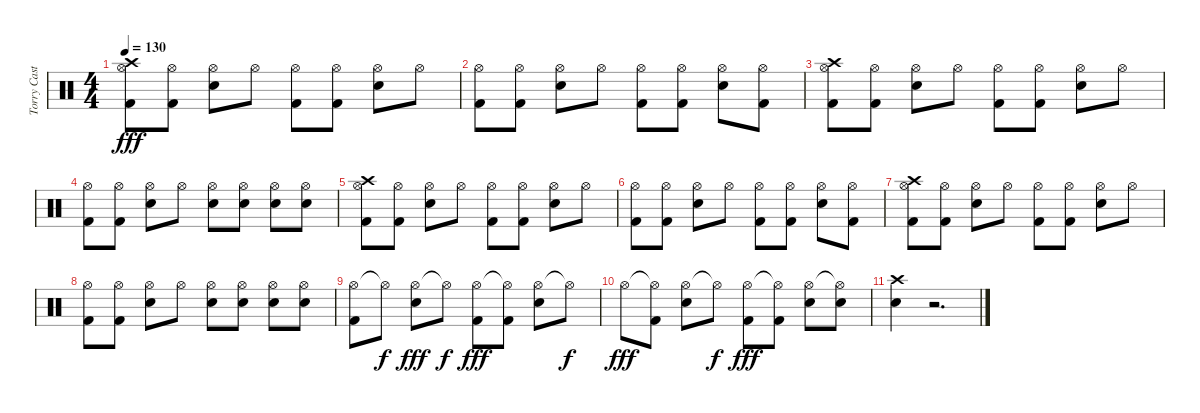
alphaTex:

\track ("Torry Castellano" "Torry Cast") {instrument percussion}
\staff {score}
\articulation defaults
\ts (4 4)
\tempo 130
\clef neutral
\ks c
("Crash high (hit)" "Hi-Hat (open)" "Kick (hit) 2").8{dy fff} ("Hi-Hat (open)" "Kick (hit) 2").8 ("Hi-Hat (open)" "Electric Snare (hit)").8 "Hi-Hat (open)".8 ("Hi-Hat (open)" "Kick (hit) 2").8 ("Hi-Hat (open)" "Kick (hit) 2").8 ("Hi-Hat (open)" "Electric Snare (hit)").8 "Hi-Hat (open)".8 |
("Hi-Hat (open)" "Kick (hit) 2").8 ("Hi-Hat (open)" "Kick (hit) 2").8 ("Hi-Hat (open)" "Electric Snare (hit)").8 "Hi-Hat (open)".8 ("Hi-Hat (open)" "Kick (hit) 2").8 ("Hi-Hat (open)" "Kick (hit) 2").8 ("Hi-Hat (open)" "Electric Snare (hit)").8 ("Hi-Hat (open)" "Kick (hit) 2").8 |
("Crash high (hit)" "Hi-Hat (open)" "Kick (hit) 2").8 ("Hi-Hat (open)" "Kick (hit) 2").8 ("Hi-Hat (open)" "Electric Snare (hit)").8 "Hi-Hat (open)".8 ("Hi-Hat (open)" "Kick (hit) 2").8 ("Hi-Hat (open)" "Kick (hit) 2").8 ("Hi-Hat (open)" "Electric Snare (hit)").8 "Hi-Hat (open)".8 |
("Hi-Hat (open)" "Kick (hit) 2").8 ("Hi-Hat (open)" "Kick (hit) 2").8 ("Hi-Hat (open)" "Electric Snare (hit)").8 "Hi-Hat (open)".8 ("Hi-Hat (open)" "Electric Snare (hit)").8 ("Hi-Hat (open)" "Electric Snare (hit)").8 ("Hi-Hat (open)" "Electric Snare (hit)").8 ("Hi-Hat (open)" "Electric Snare (hit)").8 |
("Crash high (hit)" "Hi-Hat (open)" "Kick (hit) 2").8 ("Hi-Hat (open)" "Kick (hit) 2").8 ("Hi-Hat (open)" "Electric Snare (hit)").8 "Hi-Hat (open)".8 ("Hi-Hat (open)" "Kick (hit) 2").8 ("Hi-Hat (open)" "Kick (hit) 2").8 ("Hi-Hat (open)" "Electric Snare (hit)").8 "Hi-Hat (open)".8 |
("Hi-Hat (open)" "Kick (hit) 2").8 ("Hi-Hat (open)" "Kick (hit) 2").8 ("Hi-Hat (open)" "Electric Snare (hit)").8 "Hi-Hat (open)".8 ("Hi-Hat (open)" "Kick (hit) 2").8 ("Hi-Hat (open)" "Kick (hit) 2").8 ("Hi-Hat (open)" "Electric Snare (hit)").8 ("Hi-Hat (open)" "Kick (hit) 2").8 |
("Crash high (hit)" "Hi-Hat (open)" "Kick (hit) 2").8 ("Hi-Hat (open)" "Kick (hit) 2").8 ("Hi-Hat (open)" "Electric Snare (hit)").8 "Hi-Hat (open)".8 ("Hi-Hat (open)" "Kick (hit) 2").8 ("Hi-Hat (open)" "Kick (hit) 2").8 ("Hi-Hat (open)" "Electric Snare (hit)").8 "Hi-Hat (open)".8 |
("Hi-Hat (open)" "Kick (hit) 2").8 ("Hi-Hat (open)" "Kick (hit) 2").8 ("Hi-Hat (open)" "Electric Snare (hit)").8 "Hi-Hat (open)".8 ("Hi-Hat (open)" "Electric Snare (hit)").8 ("Hi-Hat (open)" "Electric Snare (hit)").8 ("Hi-Hat (open)" "Electric Snare (hit)").8 ("Hi-Hat (open)" "Electric Snare (hit)").8 |
("Hi-Hat (open)" "Kick (hit) 2").8 "Hi-Hat (open)"{t}.8{dy f} ("Hi-Hat (open)" "Electric Snare (hit)").8{dy fff} "Hi-Hat (open)"{t}.8{dy f} ("Hi-Hat (open)" "Kick (hit) 2").8{dy fff} ("Hi-Hat (open)"{t} "Kick (hit) 2").8 ("Hi-Hat (open)" "Electric Snare (hit)").8 "Hi-Hat (open)"{t}.8{dy f} |
"Hi-Hat (open)".8{dy fff} ("Hi-Hat (open)"{t} "Kick (hit) 2").8 ("Hi-Hat (open)" "Electric Snare (hit)").8 "Hi-Hat (open)"{t}.8{dy f} ("Hi-Hat (open)" "Kick (hit) 2").8{dy fff} ("Hi-Hat (open)"{t} "Kick (hit) 2").8 ("Hi-Hat (open)" "Electric Snare (hit)").8 ("Hi-Hat (open)"{t} "Electric Snare (hit)").8 |
("Crash high (hit)" "Electric Snare (hit)").4 r.2{d}
